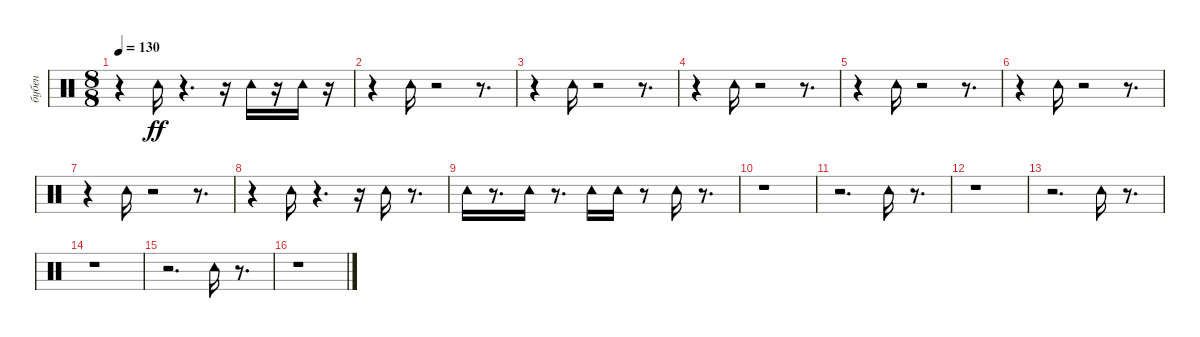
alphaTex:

\track ("бубен" "бубен") {instrument percussion}
\staff {score}
\articulation defaults
\ts (8 8)
\tempo 130
\clef neutral
\ks c
r.4{dy ff} "Tambourine (hit)".16 r.4{d} r.16 "Tambourine (hit)".16 r.16 "Tambourine (hit)".16 r.16 |
r.4 "Tambourine (hit)".16 r.2 r.8{d} |
r.4 "Tambourine (hit)".16 r.2 r.8{d} |
r.4 "Tambourine (hit)".16 r.2 r.8{d} |
r.4 "Tambourine (hit)".16 r.2 r.8{d} |
r.4 "Tambourine (hit)".16 r.2 r.8{d} |
r.4 "Tambourine (hit)".16 r.2 r.8{d} |
r.4 "Tambourine (hit)".16 r.4{d} r.16 "Tambourine (hit)".16 r.8{d} |
"Tambourine (hit)".16 r.8{d} "Tambourine (hit)".16 r.8{d} "Tambourine (hit)".16 "Tambourine (hit)".16 r.8 "Tambourine (hit)".16 r.8{d} |
r.1 |
r.2{d} "Tambourine (hit)".16 r.8{d} |
r.1 |
r.2{d} "Tambourine (hit)".16 r.8{d} |
r.1 |
r.2{d} "Tambourine (hit)".16 r.8{d} |
r.1
